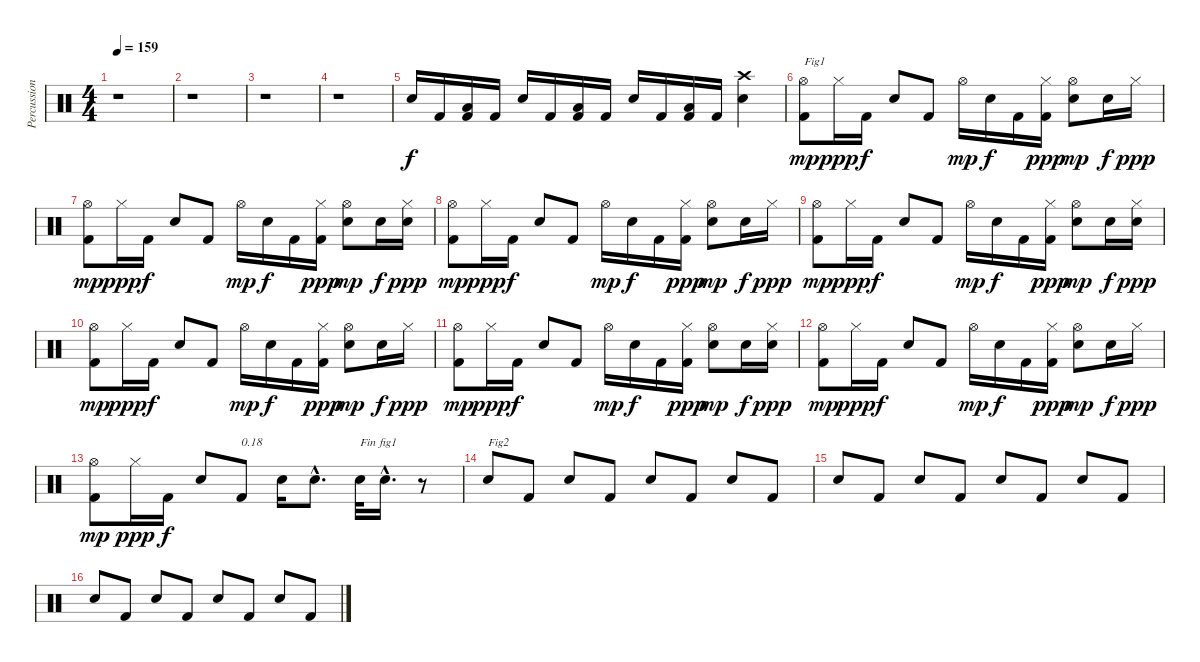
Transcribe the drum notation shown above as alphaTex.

\track ("Percussions" "Percussion") {instrument percussion}
\staff {score}
\articulation defaults
\ts (4 4)
\tempo 159
\clef neutral
\ks c
r.1{dy f} |
r.1 |
r.1 |
r.1 |
"Electric Snare (hit)".16 "Kick (hit) 2".16 ("Kick (hit) 2" "Low Floor Tom (hit)").16 "Kick (hit) 2".16 "Electric Snare (hit)".16 "Kick (hit) 2".16 ("Kick (hit) 2" "Low Floor Tom (hit)").16 "Kick (hit) 2".16 "Electric Snare (hit)".16 "Kick (hit) 2".16 ("Kick (hit) 2" "Low Floor Tom (hit)").16 "Kick (hit) 2".16 ("Electric Snare (hit)" "Crash high (hit)").4 |
("Kick (hit) 2" "Hi-Hat (open)").8{txt "Fig1" dy mp} "Hi-Hat (closed)".16{dy ppp} "Kick (hit) 2".16{dy f} "Electric Snare (hit)".8 "Kick (hit) 2".8 "Hi-Hat (open)".16{dy mp} "Electric Snare (hit)".16{dy f} "Kick (hit) 2".16 ("Kick (hit) 2" "Hi-Hat (closed)").16{dy ppp} ("Electric Snare (hit)" "Hi-Hat (open)").8{dy mp} "Electric Snare (hit)".16{dy f} "Hi-Hat (closed)".16{dy ppp} |
("Kick (hit) 2" "Hi-Hat (open)").8{dy mp} "Hi-Hat (closed)".16{dy ppp} "Kick (hit) 2".16{dy f} "Electric Snare (hit)".8 "Kick (hit) 2".8 "Hi-Hat (open)".16{dy mp} "Electric Snare (hit)".16{dy f} "Kick (hit) 2".16 ("Kick (hit) 2" "Hi-Hat (closed)").16{dy ppp} ("Electric Snare (hit)" "Hi-Hat (open)").8{dy mp} "Electric Snare (hit)".16{dy f} ("Electric Snare (hit)" "Hi-Hat (closed)").16{dy ppp} |
("Kick (hit) 2" "Hi-Hat (open)").8{dy mp} "Hi-Hat (closed)".16{dy ppp} "Kick (hit) 2".16{dy f} "Electric Snare (hit)".8 "Kick (hit) 2".8 "Hi-Hat (open)".16{dy mp} "Electric Snare (hit)".16{dy f} "Kick (hit) 2".16 ("Kick (hit) 2" "Hi-Hat (closed)").16{dy ppp} ("Electric Snare (hit)" "Hi-Hat (open)").8{dy mp} "Electric Snare (hit)".16{dy f} "Hi-Hat (closed)".16{dy ppp} |
("Kick (hit) 2" "Hi-Hat (open)").8{dy mp} "Hi-Hat (closed)".16{dy ppp} "Kick (hit) 2".16{dy f} "Electric Snare (hit)".8 "Kick (hit) 2".8 "Hi-Hat (open)".16{dy mp} "Electric Snare (hit)".16{dy f} "Kick (hit) 2".16 ("Kick (hit) 2" "Hi-Hat (closed)").16{dy ppp} ("Electric Snare (hit)" "Hi-Hat (open)").8{dy mp} "Electric Snare (hit)".16{dy f} ("Electric Snare (hit)" "Hi-Hat (closed)").16{dy ppp} |
("Kick (hit) 2" "Hi-Hat (open)").8{dy mp} "Hi-Hat (closed)".16{dy ppp} "Kick (hit) 2".16{dy f} "Electric Snare (hit)".8 "Kick (hit) 2".8 "Hi-Hat (open)".16{dy mp} "Electric Snare (hit)".16{dy f} "Kick (hit) 2".16 ("Kick (hit) 2" "Hi-Hat (closed)").16{dy ppp} ("Electric Snare (hit)" "Hi-Hat (open)").8{dy mp} "Electric Snare (hit)".16{dy f} "Hi-Hat (closed)".16{dy ppp} |
("Kick (hit) 2" "Hi-Hat (open)").8{dy mp} "Hi-Hat (closed)".16{dy ppp} "Kick (hit) 2".16{dy f} "Electric Snare (hit)".8 "Kick (hit) 2".8 "Hi-Hat (open)".16{dy mp} "Electric Snare (hit)".16{dy f} "Kick (hit) 2".16 ("Kick (hit) 2" "Hi-Hat (closed)").16{dy ppp} ("Electric Snare (hit)" "Hi-Hat (open)").8{dy mp} "Electric Snare (hit)".16{dy f} ("Electric Snare (hit)" "Hi-Hat (closed)").16{dy ppp} |
("Kick (hit) 2" "Hi-Hat (open)").8{dy mp} "Hi-Hat (closed)".16{dy ppp} "Kick (hit) 2".16{dy f} "Electric Snare (hit)".8 "Kick (hit) 2".8 "Hi-Hat (open)".16{dy mp} "Electric Snare (hit)".16{dy f} "Kick (hit) 2".16 ("Kick (hit) 2" "Hi-Hat (closed)").16{dy ppp} ("Electric Snare (hit)" "Hi-Hat (open)").8{dy mp} "Electric Snare (hit)".16{dy f} "Hi-Hat (closed)".16{dy ppp} |
("Kick (hit) 2" "Hi-Hat (open)").8{dy mp} "Hi-Hat (closed)".16{dy ppp} "Kick (hit) 2".16{dy f} "Electric Snare (hit)".8 "Kick (hit) 2".8{txt "0.18"} "Electric Snare (hit)".16 "Electric Snare (hit)"{hac}.8{d} "Electric Snare (hit)".32{txt "Fin fig1"} "Electric Snare (hit)"{hac}.16{d} r.8 |
"Electric Snare (hit)".8{txt "Fig2"} "Kick (hit) 2".8 "Electric Snare (hit)".8 "Kick (hit) 2".8 "Electric Snare (hit)".8 "Kick (hit) 2".8 "Electric Snare (hit)".8 "Kick (hit) 2".8 |
"Electric Snare (hit)".8 "Kick (hit) 2".8 "Electric Snare (hit)".8 "Kick (hit) 2".8 "Electric Snare (hit)".8 "Kick (hit) 2".8 "Electric Snare (hit)".8 "Kick (hit) 2".8 |
"Electric Snare (hit)".8 "Kick (hit) 2".8 "Electric Snare (hit)".8 "Kick (hit) 2".8 "Electric Snare (hit)".8 "Kick (hit) 2".8 "Electric Snare (hit)".8 "Kick (hit) 2".8
